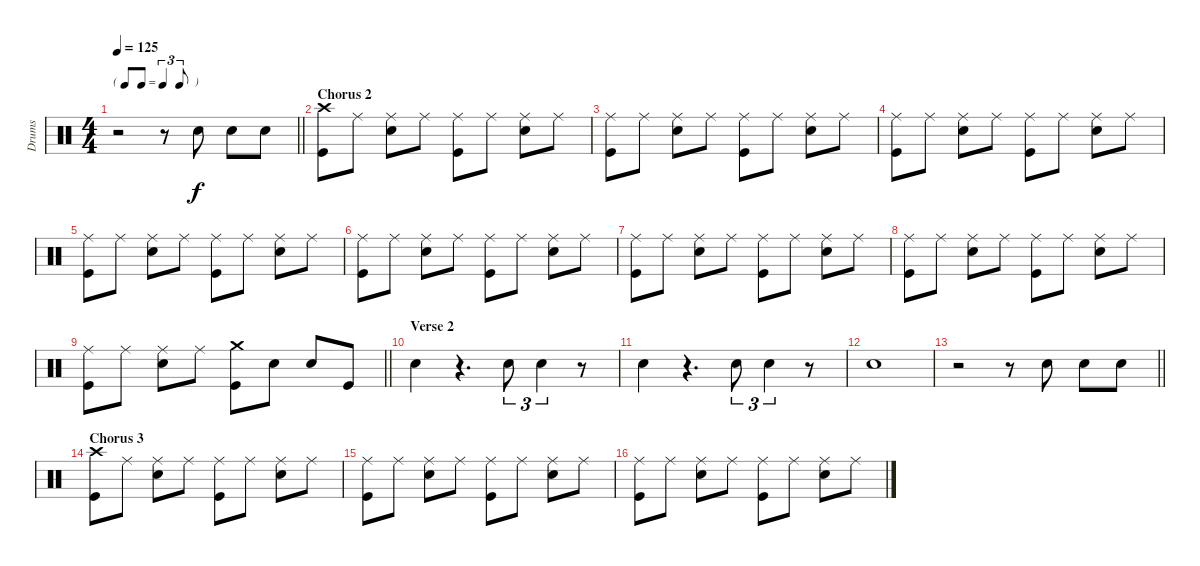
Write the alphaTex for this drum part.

\track ("Drums" "Drums") {instrument percussion}
\staff {score}
\articulation defaults
\ts (4 4)
\tf triplet8th
\tempo 125
\clef neutral
\barLineRight lightlight
\ks aminor
r.2{dy f} r.8 "Snare (hit) 2".8 "Snare (hit) 2".8 "Snare (hit) 2".8 |
\section ("" "Chorus 2")
("Crash high (hit)" "Kick (hit)").8 "Ride (middle)".8 ("Ride (middle)" "Snare (hit) 2").8 "Ride (middle)".8 ("Ride (middle)" "Kick (hit)").8 "Ride (middle)".8 ("Ride (middle)" "Snare (hit) 2").8 "Ride (middle)".8 |
("Ride (middle)" "Kick (hit)").8 "Ride (middle)".8 ("Ride (middle)" "Snare (hit) 2").8 "Ride (middle)".8 ("Ride (middle)" "Kick (hit)").8 "Ride (middle)".8 ("Ride (middle)" "Snare (hit) 2").8 "Ride (middle)".8 |
("Ride (middle)" "Kick (hit)").8 "Ride (middle)".8 ("Ride (middle)" "Snare (hit) 2").8 "Ride (middle)".8 ("Ride (middle)" "Kick (hit)").8 "Ride (middle)".8 ("Ride (middle)" "Snare (hit) 2").8 "Ride (middle)".8 |
("Ride (middle)" "Kick (hit)").8 "Ride (middle)".8 ("Ride (middle)" "Snare (hit) 2").8 "Ride (middle)".8 ("Ride (middle)" "Kick (hit)").8 "Ride (middle)".8 ("Ride (middle)" "Snare (hit) 2").8 "Ride (middle)".8 |
("Ride (middle)" "Kick (hit)").8 "Ride (middle)".8 ("Ride (middle)" "Snare (hit) 2").8 "Ride (middle)".8 ("Ride (middle)" "Kick (hit)").8 "Ride (middle)".8 ("Ride (middle)" "Snare (hit) 2").8 "Ride (middle)".8 |
("Ride (middle)" "Kick (hit)").8 "Ride (middle)".8 ("Ride (middle)" "Snare (hit) 2").8 "Ride (middle)".8 ("Ride (middle)" "Kick (hit)").8 "Ride (middle)".8 ("Ride (middle)" "Snare (hit) 2").8 "Ride (middle)".8 |
("Ride (middle)" "Kick (hit)").8 "Ride (middle)".8 ("Ride (middle)" "Snare (hit) 2").8 "Ride (middle)".8 ("Ride (middle)" "Kick (hit)").8 "Ride (middle)".8 ("Ride (middle)" "Snare (hit) 2").8 "Ride (middle)".8 |
\barLineRight lightlight
("Ride (middle)" "Kick (hit)").8 "Ride (middle)".8 ("Ride (middle)" "Snare (hit) 2").8 "Ride (middle)".8 ("Crash medium (hit)" "Kick (hit)").8 "Snare (hit) 2".8 "Snare (hit) 2".8 "Kick (hit)".8 |
\section ("" "Verse 2")
"Snare (hit) 2".4 r.4{d} "Snare (hit) 2".8{tu (3 2)} "Snare (hit) 2".4{tu (3 2)} r.8 |
"Snare (hit) 2".4 r.4{d} "Snare (hit) 2".8{tu (3 2)} "Snare (hit) 2".4{tu (3 2)} r.8 |
"Snare (hit) 2".1 |
\barLineRight lightlight
r.2 r.8 "Snare (hit) 2".8 "Snare (hit) 2".8 "Snare (hit) 2".8 |
\section ("" "Chorus 3")
("Crash high (hit)" "Kick (hit)").8 "Ride (middle)".8 ("Ride (middle)" "Snare (hit) 2").8 "Ride (middle)".8 ("Ride (middle)" "Kick (hit)").8 "Ride (middle)".8 ("Ride (middle)" "Snare (hit) 2").8 "Ride (middle)".8 |
("Ride (middle)" "Kick (hit)").8 "Ride (middle)".8 ("Ride (middle)" "Snare (hit) 2").8 "Ride (middle)".8 ("Ride (middle)" "Kick (hit)").8 "Ride (middle)".8 ("Ride (middle)" "Snare (hit) 2").8 "Ride (middle)".8 |
("Ride (middle)" "Kick (hit)").8 "Ride (middle)".8 ("Ride (middle)" "Snare (hit) 2").8 "Ride (middle)".8 ("Ride (middle)" "Kick (hit)").8 "Ride (middle)".8 ("Ride (middle)" "Snare (hit) 2").8 "Ride (middle)".8
